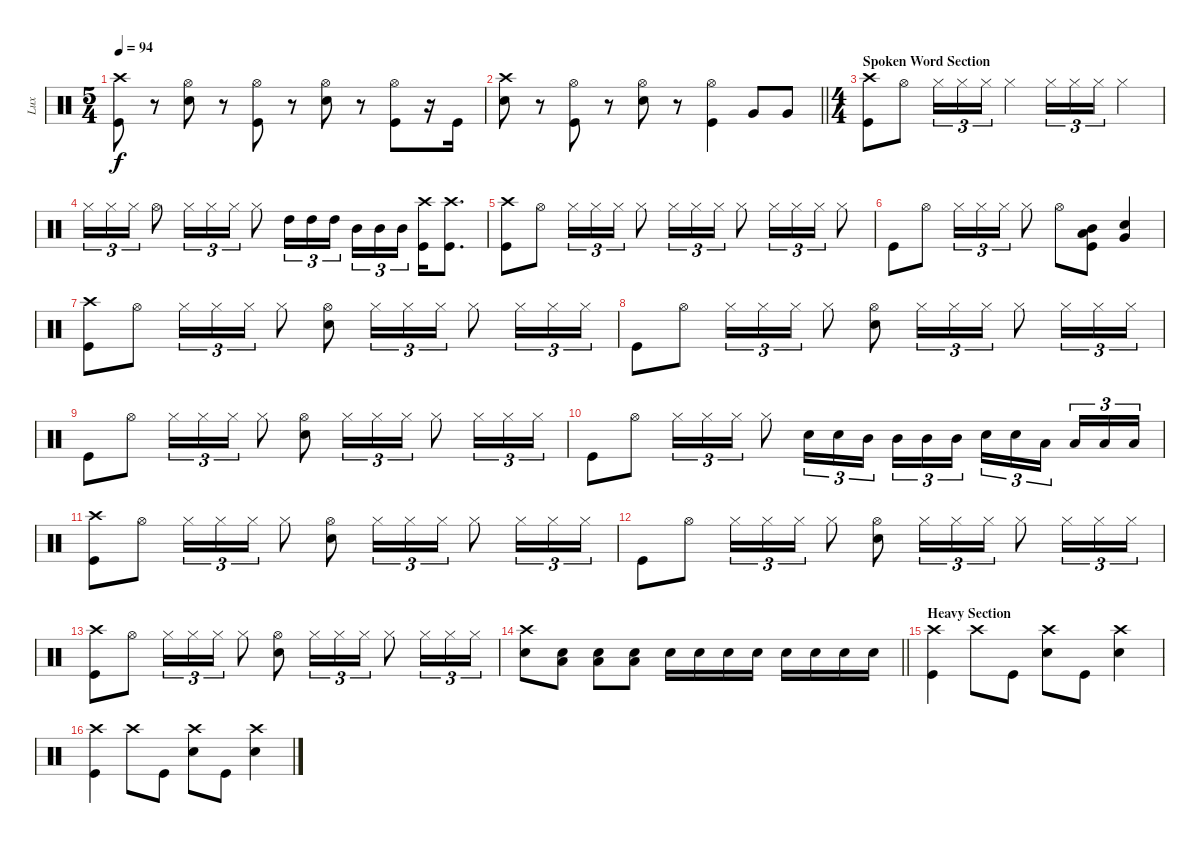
\track ("Lux" "Lux") {instrument percussion}
\staff {score}
\articulation defaults
\ts (5 4)
\tempo 94
\clef neutral
\ks c
("Crash high (hit)" "Kick (hit)").8{dy f} r.8 ("Hi-Hat (open)" "Snare (hit) 2").8 r.8 ("Hi-Hat (open)" "Kick (hit)").8 r.8 ("Hi-Hat (open)" "Snare (hit) 2").8 r.8 ("Hi-Hat (open)" "Kick (hit)").8 r.16 "Kick (hit)".16 |
\barLineRight lightlight
("Crash high (hit)" "Snare (hit) 2").8 r.8 ("Hi-Hat (open)" "Kick (hit)").8 r.8 ("Hi-Hat (open)" "Snare (hit) 2").8 r.8 ("Hi-Hat (open)" "Kick (hit)").4 "Very Low Tom (hit)".8 "Very Low Tom (hit)".8 |
\ts (4 4)
\section ("" "Spoken Word Section")
("Crash high (hit)" "Kick (hit)").8 "Hi-Hat (open)".8 "Hi-Hat (closed)".16{tu (3 2)} "Hi-Hat (closed)".16{tu (3 2)} "Hi-Hat (closed)".16{tu (3 2)} "Hi-Hat (closed)".4 "Hi-Hat (closed)".16{tu (3 2)} "Hi-Hat (closed)".16{tu (3 2)} "Hi-Hat (closed)".16{tu (3 2)} "Hi-Hat (closed)".4 |
"Hi-Hat (closed)".16{tu (3 2)} "Hi-Hat (closed)".16{tu (3 2)} "Hi-Hat (closed)".16{tu (3 2)} "Hi-Hat (open)".8 "Hi-Hat (closed)".16{tu (3 2)} "Hi-Hat (closed)".16{tu (3 2)} "Hi-Hat (closed)".16{tu (3 2)} "Hi-Hat (closed)".8 "High Tom (hit)".16{tu (3 2)} "High Tom (hit)".16{tu (3 2)} "High Tom (hit)".16{tu (3 2) beam splitsecondary} "Mid Tom (hit)".16{tu (3 2)} "Mid Tom (hit)".16{tu (3 2)} "Mid Tom (hit)".16{tu (3 2)} ("Crash high (hit)" "Kick (hit)").16 ("Crash high (hit)" "Kick (hit)").8{d} |
("Crash high (hit)" "Kick (hit)").8 "Hi-Hat (open)".8 "Hi-Hat (closed)".16{tu (3 2)} "Hi-Hat (closed)".16{tu (3 2)} "Hi-Hat (closed)".16{tu (3 2)} "Hi-Hat (closed)".8 "Hi-Hat (closed)".16{tu (3 2)} "Hi-Hat (closed)".16{tu (3 2)} "Hi-Hat (closed)".16{tu (3 2)} "Hi-Hat (closed)".8 "Hi-Hat (closed)".16{tu (3 2)} "Hi-Hat (closed)".16{tu (3 2)} "Hi-Hat (closed)".16{tu (3 2)} "Hi-Hat (closed)".8 |
"Kick (hit)".8 "Hi-Hat (open)".8 "Hi-Hat (closed)".16{tu (3 2)} "Hi-Hat (closed)".16{tu (3 2)} "Hi-Hat (closed)".16{tu (3 2)} "Hi-Hat (closed)".8 "Hi-Hat (open)".8 ("Mid Tom (hit)" "Low Floor Tom (hit)" "Kick (hit)").8 ("Very Low Tom (hit)" "Snare (hit) 2").4 |
("Crash high (hit)" "Kick (hit)").8 "Hi-Hat (open)".8 "Hi-Hat (closed)".16{tu (3 2)} "Hi-Hat (closed)".16{tu (3 2)} "Hi-Hat (closed)".16{tu (3 2)} "Hi-Hat (closed)".8 ("Hi-Hat (open)" "Snare (hit) 2").8 "Hi-Hat (closed)".16{tu (3 2)} "Hi-Hat (closed)".16{tu (3 2)} "Hi-Hat (closed)".16{tu (3 2)} "Hi-Hat (closed)".8 "Hi-Hat (closed)".16{tu (3 2)} "Hi-Hat (closed)".16{tu (3 2)} "Hi-Hat (closed)".16{tu (3 2)} |
"Kick (hit)".8 "Hi-Hat (open)".8 "Hi-Hat (closed)".16{tu (3 2)} "Hi-Hat (closed)".16{tu (3 2)} "Hi-Hat (closed)".16{tu (3 2)} "Hi-Hat (closed)".8 ("Hi-Hat (open)" "Snare (hit) 2").8 "Hi-Hat (closed)".16{tu (3 2)} "Hi-Hat (closed)".16{tu (3 2)} "Hi-Hat (closed)".16{tu (3 2)} "Hi-Hat (closed)".8 "Hi-Hat (closed)".16{tu (3 2)} "Hi-Hat (closed)".16{tu (3 2)} "Hi-Hat (closed)".16{tu (3 2)} |
"Kick (hit)".8 "Hi-Hat (open)".8 "Hi-Hat (closed)".16{tu (3 2)} "Hi-Hat (closed)".16{tu (3 2)} "Hi-Hat (closed)".16{tu (3 2)} "Hi-Hat (closed)".8 ("Hi-Hat (open)" "Snare (hit) 2").8 "Hi-Hat (closed)".16{tu (3 2)} "Hi-Hat (closed)".16{tu (3 2)} "Hi-Hat (closed)".16{tu (3 2)} "Hi-Hat (closed)".8 "Hi-Hat (closed)".16{tu (3 2)} "Hi-Hat (closed)".16{tu (3 2)} "Hi-Hat (closed)".16{tu (3 2)} |
"Kick (hit)".8 "Hi-Hat (open)".8 "Hi-Hat (closed)".16{tu (3 2)} "Hi-Hat (closed)".16{tu (3 2)} "Hi-Hat (closed)".16{tu (3 2)} "Hi-Hat (closed)".8 "Snare (hit) 2".16{tu (3 2)} "Snare (hit) 2".16{tu (3 2)} "Mid Tom (hit)".16{tu (3 2) beam splitsecondary} "Mid Tom (hit)".16{tu (3 2)} "Mid Tom (hit)".16{tu (3 2)} "Mid Tom (hit)".16{tu (3 2)} "Snare (hit) 2".16{tu (3 2)} "Snare (hit) 2".16{tu (3 2)} "Low Tom (hit)".16{tu (3 2) beam splitsecondary} "Low Tom (hit)".16{tu (3 2)} "Low Tom (hit)".16{tu (3 2)} "Low Tom (hit)".16{tu (3 2)} |
("Crash high (hit)" "Kick (hit)").8 "Hi-Hat (open)".8 "Hi-Hat (closed)".16{tu (3 2)} "Hi-Hat (closed)".16{tu (3 2)} "Hi-Hat (closed)".16{tu (3 2)} "Hi-Hat (closed)".8 ("Hi-Hat (open)" "Snare (hit) 2").8 "Hi-Hat (closed)".16{tu (3 2)} "Hi-Hat (closed)".16{tu (3 2)} "Hi-Hat (closed)".16{tu (3 2)} "Hi-Hat (closed)".8 "Hi-Hat (closed)".16{tu (3 2)} "Hi-Hat (closed)".16{tu (3 2)} "Hi-Hat (closed)".16{tu (3 2)} |
"Kick (hit)".8 "Hi-Hat (open)".8 "Hi-Hat (closed)".16{tu (3 2)} "Hi-Hat (closed)".16{tu (3 2)} "Hi-Hat (closed)".16{tu (3 2)} "Hi-Hat (closed)".8 ("Hi-Hat (open)" "Snare (hit) 2").8 "Hi-Hat (closed)".16{tu (3 2)} "Hi-Hat (closed)".16{tu (3 2)} "Hi-Hat (closed)".16{tu (3 2)} "Hi-Hat (closed)".8 "Hi-Hat (closed)".16{tu (3 2)} "Hi-Hat (closed)".16{tu (3 2)} "Hi-Hat (closed)".16{tu (3 2)} |
("Crash high (hit)" "Kick (hit)").8 "Hi-Hat (open)".8 "Hi-Hat (closed)".16{tu (3 2)} "Hi-Hat (closed)".16{tu (3 2)} "Hi-Hat (closed)".16{tu (3 2)} "Hi-Hat (closed)".8 ("Hi-Hat (open)" "Snare (hit) 2").8 "Hi-Hat (closed)".16{tu (3 2)} "Hi-Hat (closed)".16{tu (3 2)} "Hi-Hat (closed)".16{tu (3 2)} "Hi-Hat (closed)".8 "Hi-Hat (closed)".16{tu (3 2)} "Hi-Hat (closed)".16{tu (3 2)} "Hi-Hat (closed)".16{tu (3 2)} |
\barLineRight lightlight
("Crash high (hit)" "Snare (hit) 2").8 ("Low Tom (hit)" "Snare (hit) 2").8 ("Low Tom (hit)" "Snare (hit) 2").8 ("Low Tom (hit)" "Snare (hit) 2").8 "Snare (hit) 2".16 "Snare (hit) 2".16 "Snare (hit) 2".16 "Snare (hit) 2".16 "Snare (hit) 2".16 "Snare (hit) 2".16 "Snare (hit) 2".16 "Snare (hit) 2".16 |
\section ("" "Heavy Section")
("Crash high (hit)" "Kick (hit)").4 "Crash high (hit)".8 "Kick (hit)".8 ("Crash high (hit)" "Snare (hit) 2").8 "Kick (hit)".8 ("Crash high (hit)" "Snare (hit) 2").4 |
("Crash high (hit)" "Kick (hit)").4 "Crash high (hit)".8 "Kick (hit)".8 ("Crash high (hit)" "Snare (hit) 2").8 "Kick (hit)".8 ("Crash high (hit)" "Snare (hit) 2").4
